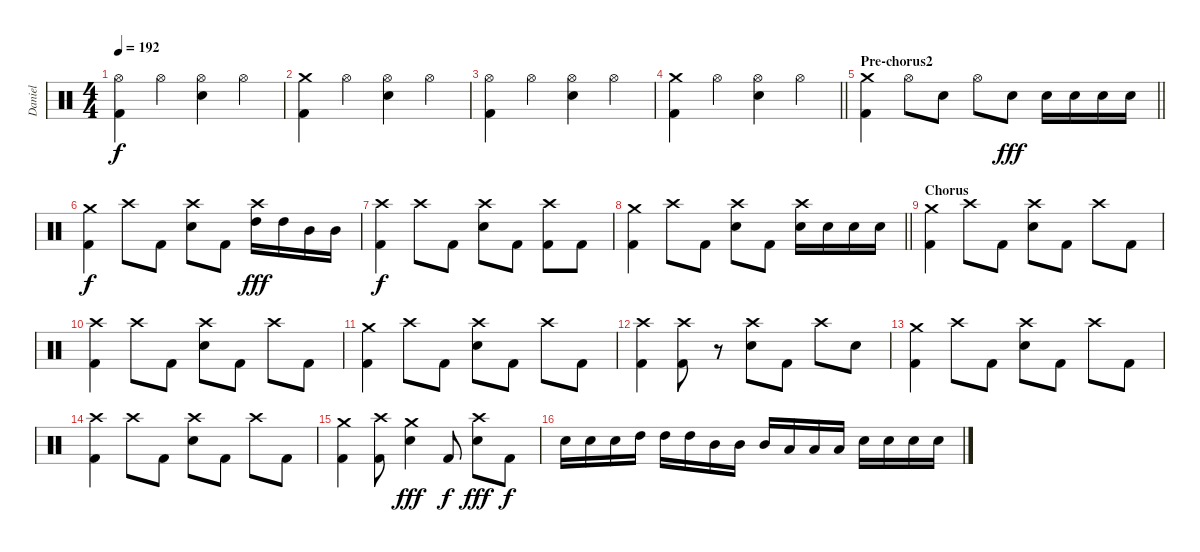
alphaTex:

\track ("Daniel" "Daniel") {instrument percussion}
\staff {score}
\articulation defaults
\ts (4 4)
\tempo 192
\clef neutral
\ks c
("Kick (hit) 2" "Hi-Hat (open)").4{dy f} "Hi-Hat (open)".4 ("Electric Snare (hit)" "Hi-Hat (open)").4 "Hi-Hat (open)".4 |
("Kick (hit) 2" "Crash medium (hit)").4 "Hi-Hat (open)".4 ("Electric Snare (hit)" "Hi-Hat (open)").4 "Hi-Hat (open)".4 |
("Kick (hit) 2" "Hi-Hat (open)").4 "Hi-Hat (open)".4 ("Electric Snare (hit)" "Hi-Hat (open)").4 "Hi-Hat (open)".4 |
\barLineRight lightlight
("Kick (hit) 2" "Crash medium (hit)").4 "Hi-Hat (open)".4 ("Electric Snare (hit)" "Hi-Hat (open)").4 "Hi-Hat (open)".4 |
\section ("" "Pre-chorus2")
\barLineRight lightlight
("Kick (hit) 2" "Crash medium (hit)").4 "Hi-Hat (open)".8 "Electric Snare (hit)".8 "Hi-Hat (open)".8 "Electric Snare (hit)".8{dy fff} "Electric Snare (hit)".16 "Electric Snare (hit)".16 "Electric Snare (hit)".16 "Electric Snare (hit)".16 |
("Kick (hit) 2" "Crash medium (hit)").4{dy f} "Crash high (hit)".8 "Kick (hit) 2".8 ("Electric Snare (hit)" "Crash high (hit)").8 "Kick (hit) 2".8 ("High Tom (hit)" "Crash high (hit)").16{dy fff} "High Tom (hit)".16 "Mid Tom (hit)".16 "Mid Tom (hit)".16 |
("Kick (hit) 2" "Crash high (hit)").4{dy f} "Crash high (hit)".8 "Kick (hit) 2".8 ("Electric Snare (hit)" "Crash high (hit)").8 "Kick (hit) 2".8 ("Kick (hit) 2" "Crash high (hit)").8 "Kick (hit) 2".8 |
\barLineRight lightlight
("Kick (hit) 2" "Crash medium (hit)").4 "Crash high (hit)".8 "Kick (hit) 2".8 ("Electric Snare (hit)" "Crash high (hit)").8 "Kick (hit) 2".8 ("Electric Snare (hit)" "Crash high (hit)").16 "Electric Snare (hit)".16 "Electric Snare (hit)".16 "Electric Snare (hit)".16 |
\section ("" "Chorus")
("Kick (hit) 2" "Crash medium (hit)").4 "Crash high (hit)".8 "Kick (hit) 2".8 ("Electric Snare (hit)" "Crash high (hit)").8 "Kick (hit) 2".8 "Crash high (hit)".8 "Kick (hit) 2".8 |
("Kick (hit) 2" "Crash high (hit)").4 "Crash high (hit)".8 "Kick (hit) 2".8 ("Electric Snare (hit)" "Crash high (hit)").8 "Kick (hit) 2".8 "Crash high (hit)".8 "Kick (hit) 2".8 |
("Kick (hit) 2" "Crash medium (hit)").4 "Crash high (hit)".8 "Kick (hit) 2".8 ("Electric Snare (hit)" "Crash high (hit)").8 "Kick (hit) 2".8 "Crash high (hit)".8 "Kick (hit) 2".8 |
("Kick (hit) 2" "Crash high (hit)").4 ("Kick (hit) 2" "Crash high (hit)").8 r.8 ("Electric Snare (hit)" "Crash high (hit)").8 "Kick (hit) 2".8 "Crash high (hit)".8 "Electric Snare (hit)".8 |
("Kick (hit) 2" "Crash medium (hit)").4 "Crash high (hit)".8 "Kick (hit) 2".8 ("Electric Snare (hit)" "Crash high (hit)").8 "Kick (hit) 2".8 "Crash high (hit)".8 "Kick (hit) 2".8 |
("Kick (hit) 2" "Crash high (hit)").4 "Crash high (hit)".8 "Kick (hit) 2".8 ("Electric Snare (hit)" "Crash high (hit)").8 "Kick (hit) 2".8 "Crash high (hit)".8 "Kick (hit) 2".8 |
("Kick (hit) 2" "Crash medium (hit)").4 ("Kick (hit) 2" "Crash high (hit)").8 ("Electric Snare (hit)" "Crash medium (hit)").4{dy fff} "Kick (hit) 2".8{dy f} ("Electric Snare (hit)" "Crash high (hit)").8{dy fff} "Kick (hit) 2".8{dy f} |
"Electric Snare (hit)".16 "Electric Snare (hit)".16 "Electric Snare (hit)".16 "High Tom (hit)".16 "High Tom (hit)".16 "High Tom (hit)".16 "Mid Tom (hit)".16 "Mid Tom (hit)".16 "Mid Tom (hit)".16 "Low Tom (hit)".16 "Low Tom (hit)".16 "Low Tom (hit)".16 "Electric Snare (hit)".16 "Electric Snare (hit)".16 "Electric Snare (hit)".16 "Electric Snare (hit)".16
